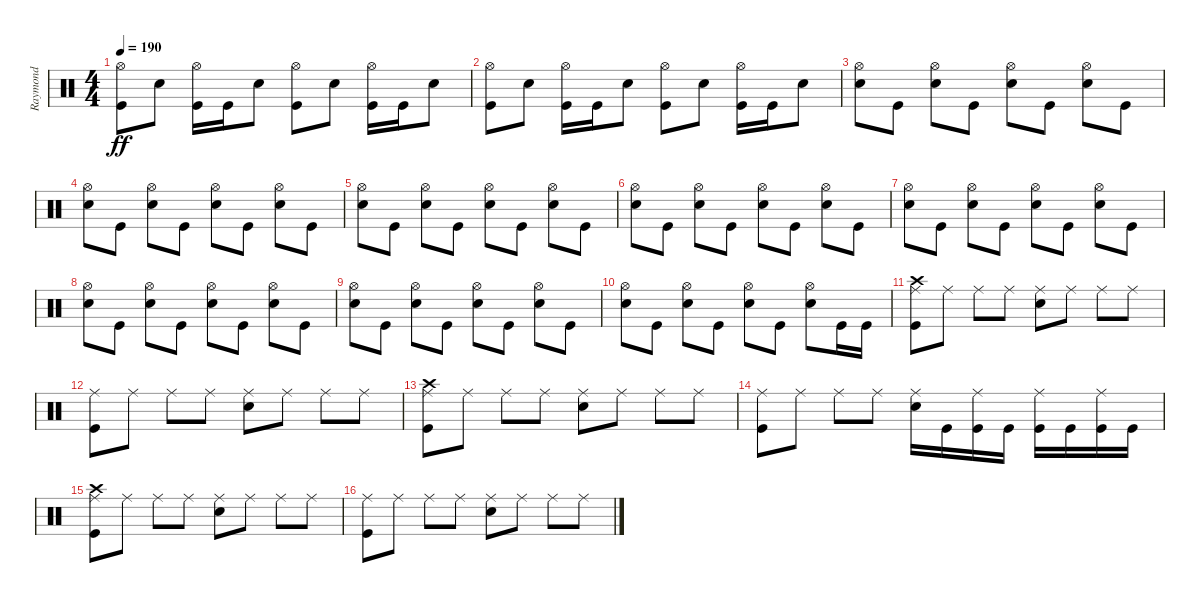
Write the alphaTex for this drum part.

\track ("Raymond" "Raymond") {instrument percussion}
\staff {score}
\articulation defaults
\ts (4 4)
\tempo 190
\clef neutral
\ks c
("Kick (hit)" "Hi-Hat (open)").8{dy ff} "Snare (hit) 2".8 ("Kick (hit)" "Hi-Hat (open)").16 "Kick (hit)".16 "Snare (hit) 2".8 ("Kick (hit)" "Hi-Hat (open)").8 "Snare (hit) 2".8 ("Kick (hit)" "Hi-Hat (open)").16 "Kick (hit)".16 "Snare (hit) 2".8 |
("Kick (hit)" "Hi-Hat (open)").8 "Snare (hit) 2".8 ("Kick (hit)" "Hi-Hat (open)").16 "Kick (hit)".16 "Snare (hit) 2".8 ("Kick (hit)" "Hi-Hat (open)").8 "Snare (hit) 2".8 ("Kick (hit)" "Hi-Hat (open)").16 "Kick (hit)".16 "Snare (hit) 2".8 |
("Snare (hit) 2" "Hi-Hat (open)").8 "Kick (hit)".8 ("Snare (hit) 2" "Hi-Hat (open)").8 "Kick (hit)".8 ("Snare (hit) 2" "Hi-Hat (open)").8 "Kick (hit)".8 ("Snare (hit) 2" "Hi-Hat (open)").8 "Kick (hit)".8 |
("Snare (hit) 2" "Hi-Hat (open)").8 "Kick (hit)".8 ("Snare (hit) 2" "Hi-Hat (open)").8 "Kick (hit)".8 ("Snare (hit) 2" "Hi-Hat (open)").8 "Kick (hit)".8 ("Snare (hit) 2" "Hi-Hat (open)").8 "Kick (hit)".8 |
("Snare (hit) 2" "Hi-Hat (open)").8 "Kick (hit)".8 ("Snare (hit) 2" "Hi-Hat (open)").8 "Kick (hit)".8 ("Snare (hit) 2" "Hi-Hat (open)").8 "Kick (hit)".8 ("Snare (hit) 2" "Hi-Hat (open)").8 "Kick (hit)".8 |
("Snare (hit) 2" "Hi-Hat (open)").8 "Kick (hit)".8 ("Snare (hit) 2" "Hi-Hat (open)").8 "Kick (hit)".8 ("Snare (hit) 2" "Hi-Hat (open)").8 "Kick (hit)".8 ("Snare (hit) 2" "Hi-Hat (open)").8 "Kick (hit)".8 |
("Snare (hit) 2" "Hi-Hat (open)").8 "Kick (hit)".8 ("Snare (hit) 2" "Hi-Hat (open)").8 "Kick (hit)".8 ("Snare (hit) 2" "Hi-Hat (open)").8 "Kick (hit)".8 ("Snare (hit) 2" "Hi-Hat (open)").8 "Kick (hit)".8 |
("Snare (hit) 2" "Hi-Hat (open)").8 "Kick (hit)".8 ("Snare (hit) 2" "Hi-Hat (open)").8 "Kick (hit)".8 ("Snare (hit) 2" "Hi-Hat (open)").8 "Kick (hit)".8 ("Snare (hit) 2" "Hi-Hat (open)").8 "Kick (hit)".8 |
("Snare (hit) 2" "Hi-Hat (open)").8 "Kick (hit)".8 ("Snare (hit) 2" "Hi-Hat (open)").8 "Kick (hit)".8 ("Snare (hit) 2" "Hi-Hat (open)").8 "Kick (hit)".8 ("Snare (hit) 2" "Hi-Hat (open)").8 "Kick (hit)".8 |
("Snare (hit) 2" "Hi-Hat (open)").8 "Kick (hit)".8 ("Snare (hit) 2" "Hi-Hat (open)").8 "Kick (hit)".8 ("Snare (hit) 2" "Hi-Hat (open)").8 "Kick (hit)".8 ("Snare (hit) 2" "Hi-Hat (open)").8 "Kick (hit)".16 "Kick (hit)".16 |
("Kick (hit)" "Crash high (hit)" "Ride (middle)").8 "Ride (middle)".8 "Ride (middle)".8 "Ride (middle)".8 ("Snare (hit) 2" "Ride (middle)").8 "Ride (middle)".8 "Ride (middle)".8 "Ride (middle)".8 |
("Kick (hit)" "Ride (middle)").8 "Ride (middle)".8 "Ride (middle)".8 "Ride (middle)".8 ("Snare (hit) 2" "Ride (middle)").8 "Ride (middle)".8 "Ride (middle)".8 "Ride (middle)".8 |
("Kick (hit)" "Crash high (hit)" "Ride (middle)").8 "Ride (middle)".8 "Ride (middle)".8 "Ride (middle)".8 ("Snare (hit) 2" "Ride (middle)").8 "Ride (middle)".8 "Ride (middle)".8 "Ride (middle)".8 |
("Kick (hit)" "Ride (middle)").8 "Ride (middle)".8 "Ride (middle)".8 "Ride (middle)".8 ("Snare (hit) 2" "Ride (middle)").16 "Kick (hit)".16 ("Kick (hit)" "Ride (middle)").16 "Kick (hit)".16 ("Kick (hit)" "Ride (middle)").16 "Kick (hit)".16 ("Kick (hit)" "Ride (middle)").16 "Kick (hit)".16 |
("Kick (hit)" "Crash high (hit)" "Ride (middle)").8 "Ride (middle)".8 "Ride (middle)".8 "Ride (middle)".8 ("Snare (hit) 2" "Ride (middle)").8 "Ride (middle)".8 "Ride (middle)".8 "Ride (middle)".8 |
("Kick (hit)" "Ride (middle)").8 "Ride (middle)".8 "Ride (middle)".8 "Ride (middle)".8 ("Snare (hit) 2" "Ride (middle)").8 "Ride (middle)".8 "Ride (middle)".8 "Ride (middle)".8
